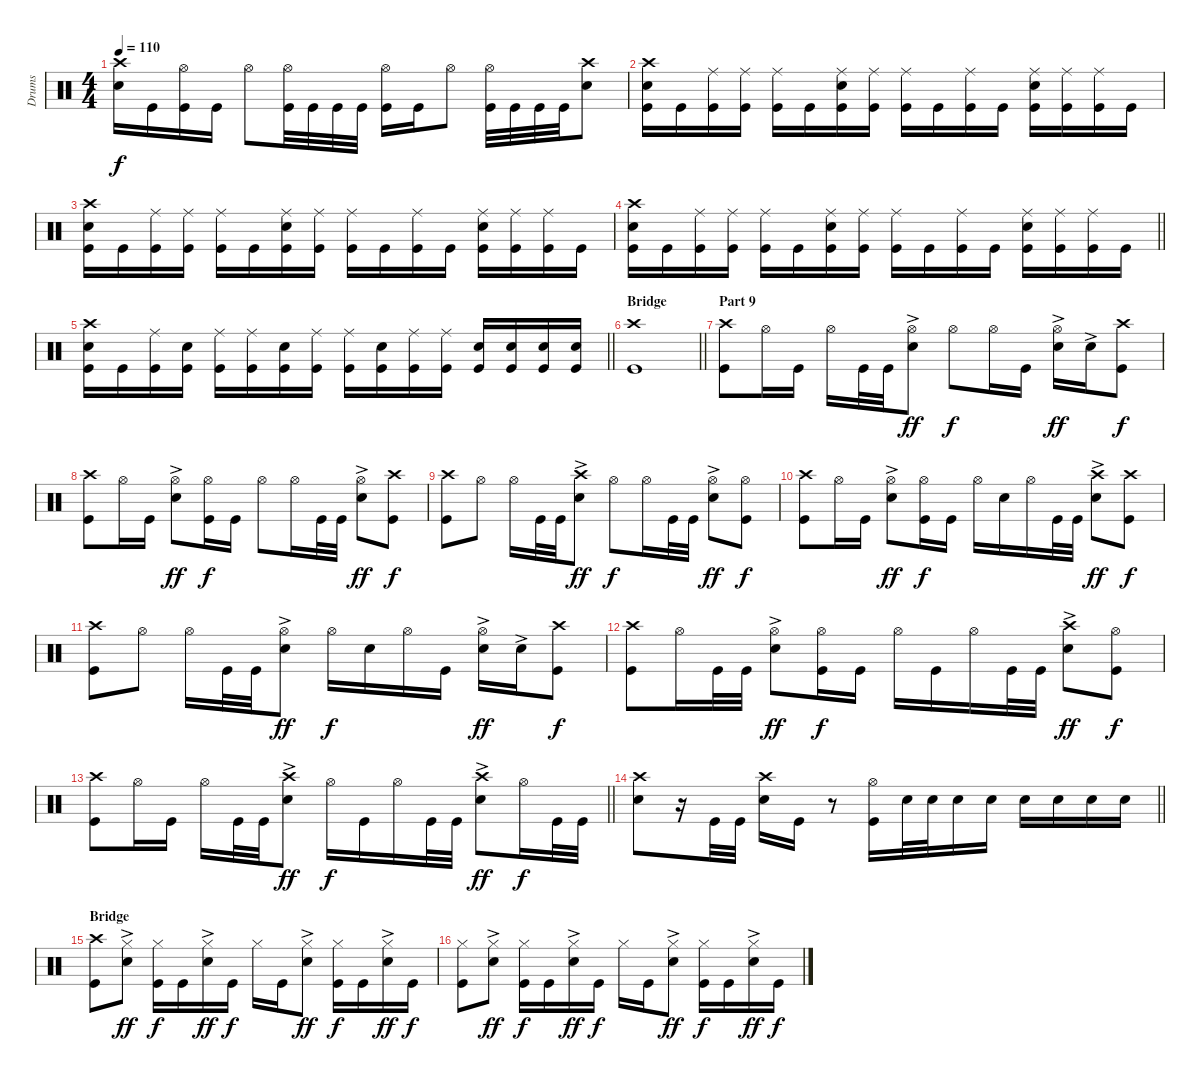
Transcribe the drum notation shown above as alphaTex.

\track ("Drums" "Drums") {instrument percussion}
\staff {score}
\articulation defaults
\ts (4 4)
\tempo 110
\clef neutral
\ks c
("Crash high (hit)" "Electric Snare (hit)").16{dy f} "Kick (hit)".16 ("Hi-Hat (open)" "Kick (hit)").16 "Kick (hit)".16 "Hi-Hat (open)".8 ("Hi-Hat (open)" "Kick (hit)").32 "Kick (hit)".32 "Kick (hit)".32 "Kick (hit)".32 ("Kick (hit)" "Hi-Hat (open)").16 "Kick (hit)".16 "Hi-Hat (open)".8 ("Kick (hit)" "Hi-Hat (open)").32 "Kick (hit)".32 "Kick (hit)".32 "Kick (hit)".32 ("Crash high (hit)" "Electric Snare (hit)").8 |
("Crash high (hit)" "Electric Snare (hit)" "Kick (hit)").16 "Kick (hit)".16 ("Kick (hit)" "Ride (middle)").16 ("Kick (hit)" "Ride (middle)").16 ("Kick (hit)" "Ride (middle)").16 "Kick (hit)".16 ("Kick (hit)" "Electric Snare (hit)" "Ride (middle)").16 ("Kick (hit)" "Ride (middle)").16 ("Kick (hit)" "Ride (middle)").16 "Kick (hit)".16 ("Kick (hit)" "Ride (middle)").16 "Kick (hit)".16 ("Kick (hit)" "Ride (middle)" "Electric Snare (hit)").16 ("Kick (hit)" "Ride (middle)").16 ("Kick (hit)" "Ride (middle)").16 "Kick (hit)".16 |
("Crash high (hit)" "Electric Snare (hit)" "Kick (hit)").16 "Kick (hit)".16 ("Kick (hit)" "Ride (middle)").16 ("Kick (hit)" "Ride (middle)").16 ("Kick (hit)" "Ride (middle)").16 "Kick (hit)".16 ("Kick (hit)" "Electric Snare (hit)" "Ride (middle)").16 ("Kick (hit)" "Ride (middle)").16 ("Kick (hit)" "Ride (middle)").16 "Kick (hit)".16 ("Kick (hit)" "Ride (middle)").16 "Kick (hit)".16 ("Kick (hit)" "Ride (middle)" "Electric Snare (hit)").16 ("Kick (hit)" "Ride (middle)").16 ("Kick (hit)" "Ride (middle)").16 "Kick (hit)".16 |
\barLineRight lightlight
("Crash high (hit)" "Electric Snare (hit)" "Kick (hit)").16 "Kick (hit)".16 ("Kick (hit)" "Ride (middle)").16 ("Kick (hit)" "Ride (middle)").16 ("Kick (hit)" "Ride (middle)").16 "Kick (hit)".16 ("Kick (hit)" "Electric Snare (hit)" "Ride (middle)").16 ("Kick (hit)" "Ride (middle)").16 ("Kick (hit)" "Ride (middle)").16 "Kick (hit)".16 ("Kick (hit)" "Ride (middle)").16 "Kick (hit)".16 ("Kick (hit)" "Ride (middle)" "Electric Snare (hit)").16 ("Kick (hit)" "Ride (middle)").16 ("Kick (hit)" "Ride (middle)").16 "Kick (hit)".16 |
\barLineRight lightlight
("Crash high (hit)" "Electric Snare (hit)" "Kick (hit)").16 "Kick (hit)".16 ("Kick (hit)" "Ride (middle)").16 ("Kick (hit)" "Electric Snare (hit)").16 ("Kick (hit)" "Ride (middle)").16 ("Kick (hit)" "Ride (middle)").16 ("Kick (hit)" "Electric Snare (hit)").16 ("Kick (hit)" "Ride (middle)").16 ("Kick (hit)" "Ride (middle)").16 ("Kick (hit)" "Electric Snare (hit)").16 ("Kick (hit)" "Ride (middle)").16 ("Kick (hit)" "Ride (middle)").16 ("Kick (hit)" "Electric Snare (hit)").16 ("Kick (hit)" "Electric Snare (hit)").16 ("Kick (hit)" "Electric Snare (hit)").16 ("Kick (hit)" "Electric Snare (hit)").16 |
\section ("" "Bridge")
\barLineRight lightlight
("Kick (hit)" "Crash high (hit)").1 |
\section ("" "Part 9")
("Kick (hit)" "Crash high (hit)").8 "Hi-Hat (open)".16 "Kick (hit)".16 "Hi-Hat (open)".16 "Kick (hit)".32 "Kick (hit)".32 ("Electric Snare (hit)"{ac} "Hi-Hat (open)").8{dy ff} "Hi-Hat (open)".8{dy f} "Hi-Hat (open)".16 "Kick (hit)".16 ("Electric Snare (hit)"{ac} "Hi-Hat (open)").16{dy ff} "Electric Snare (hit)"{ac}.16 ("Crash high (hit)" "Kick (hit)").8{dy f} |
("Kick (hit)" "Crash high (hit)").8 "Hi-Hat (open)".16 "Kick (hit)".16 ("Hi-Hat (open)" "Electric Snare (hit)"{ac}).8{dy ff} ("Hi-Hat (open)" "Kick (hit)").16{dy f} "Kick (hit)".16 "Hi-Hat (open)".8 "Hi-Hat (open)".16 "Kick (hit)".32 "Kick (hit)".32 ("Electric Snare (hit)"{ac} "Hi-Hat (open)").8{dy ff} ("Kick (hit)" "Crash high (hit)").8{dy f} |
("Kick (hit)" "Crash high (hit)").8 "Hi-Hat (open)".8 "Hi-Hat (open)".16 "Kick (hit)".32 "Kick (hit)".32 ("Electric Snare (hit)"{ac} "Crash high (hit)").8{dy ff} "Hi-Hat (open)".8{dy f} "Hi-Hat (open)".16 "Kick (hit)".32 "Kick (hit)".32 ("Electric Snare (hit)"{ac} "Hi-Hat (open)").8{dy ff} ("Hi-Hat (open)" "Kick (hit)").8{dy f} |
("Kick (hit)" "Crash high (hit)").8 "Hi-Hat (open)".16 "Kick (hit)".16 ("Electric Snare (hit)"{ac} "Hi-Hat (open)").8{dy ff} ("Hi-Hat (open)" "Kick (hit)").16{dy f} "Kick (hit)".16 "Hi-Hat (open)".16 "Electric Snare (hit)".16 "Hi-Hat (open)".16 "Kick (hit)".32 "Kick (hit)".32 ("Crash high (hit)" "Electric Snare (hit)"{ac}).8{dy ff} ("Kick (hit)" "Crash high (hit)").8{dy f} |
("Kick (hit)" "Crash high (hit)").8 "Hi-Hat (open)".8 "Hi-Hat (open)".16 "Kick (hit)".32 "Kick (hit)".32 ("Electric Snare (hit)"{ac} "Hi-Hat (open)").8{dy ff} "Hi-Hat (open)".16{dy f} "Electric Snare (hit)".16 "Hi-Hat (open)".16 "Kick (hit)".16 ("Electric Snare (hit)"{ac} "Hi-Hat (open)").16{dy ff} "Electric Snare (hit)"{ac}.16 ("Crash high (hit)" "Kick (hit)").8{dy f} |
("Kick (hit)" "Crash high (hit)").8 "Hi-Hat (open)".16 "Kick (hit)".32 "Kick (hit)".32 ("Hi-Hat (open)" "Electric Snare (hit)"{ac}).8{dy ff} ("Hi-Hat (open)" "Kick (hit)").16{dy f} "Kick (hit)".16 "Hi-Hat (open)".16 "Kick (hit)".16 "Hi-Hat (open)".16 "Kick (hit)".32 "Kick (hit)".32 ("Electric Snare (hit)"{ac} "Crash high (hit)").8{dy ff} ("Kick (hit)" "Hi-Hat (open)").8{dy f} |
\barLineRight lightlight
("Kick (hit)" "Crash high (hit)").8 "Hi-Hat (open)".16 "Kick (hit)".16 "Hi-Hat (open)".16 "Kick (hit)".32 "Kick (hit)".32 ("Electric Snare (hit)"{ac} "Crash high (hit)").8{dy ff} "Hi-Hat (open)".16{dy f} "Kick (hit)".16 "Hi-Hat (open)".16 "Kick (hit)".32 "Kick (hit)".32 ("Electric Snare (hit)"{ac} "Crash high (hit)").8{dy ff} "Hi-Hat (open)".16{dy f} "Kick (hit)".32 "Kick (hit)".32 |
\barLineRight lightlight
("Crash high (hit)" "Electric Snare (hit)").8 r.16 "Kick (hit)".32 "Kick (hit)".32 ("Crash high (hit)" "Electric Snare (hit)").16 "Kick (hit)".16 r.8 ("Hi-Hat (open)" "Kick (hit)").16 "Electric Snare (hit)".32 "Electric Snare (hit)".32 "Electric Snare (hit)".16 "Electric Snare (hit)".16 "Electric Snare (hit)".16 "Electric Snare (hit)".16 "Electric Snare (hit)".16 "Electric Snare (hit)".16 |
\section ("" "Bridge")
("Kick (hit)" "Crash high (hit)").8 ("Hi-Hat (closed)" "Electric Snare (hit)"{ac}).8{dy ff} ("Hi-Hat (closed)" "Kick (hit)").16{dy f} "Kick (hit)".16 ("Hi-Hat (closed)" "Electric Snare (hit)"{ac}).16{dy ff} "Kick (hit)".16{dy f} "Hi-Hat (closed)".16 "Kick (hit)".16 ("Electric Snare (hit)"{ac} "Hi-Hat (closed)").8{dy ff} ("Kick (hit)" "Hi-Hat (closed)").16{dy f} "Kick (hit)".16 ("Electric Snare (hit)"{ac} "Hi-Hat (closed)").16{dy ff} "Kick (hit)".16{dy f} |
("Kick (hit)" "Hi-Hat (closed)").8 ("Hi-Hat (closed)" "Electric Snare (hit)"{ac}).8{dy ff} ("Hi-Hat (closed)" "Kick (hit)").16{dy f} "Kick (hit)".16 ("Hi-Hat (closed)" "Electric Snare (hit)"{ac}).16{dy ff} "Kick (hit)".16{dy f} "Hi-Hat (closed)".16 "Kick (hit)".16 ("Electric Snare (hit)"{ac} "Hi-Hat (closed)").8{dy ff} ("Kick (hit)" "Hi-Hat (closed)").16{dy f} "Kick (hit)".16 ("Electric Snare (hit)"{ac} "Hi-Hat (closed)").16{dy ff} "Kick (hit)".16{dy f}
